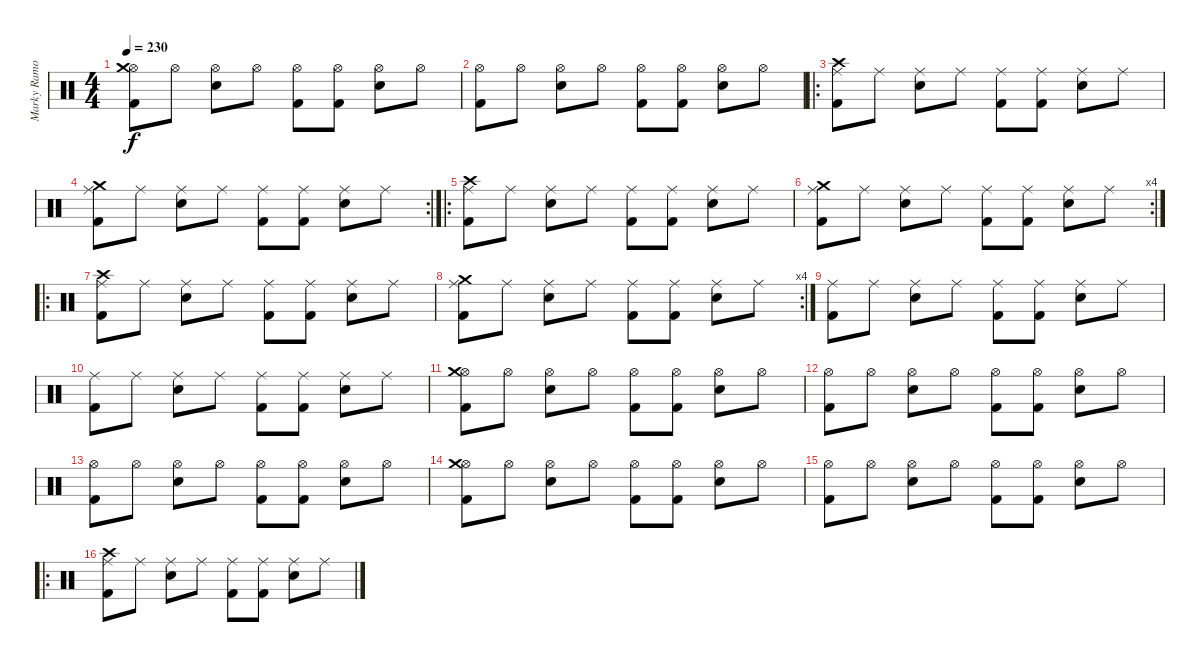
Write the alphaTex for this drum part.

\track ("Marky Ramone" "Marky Ramo") {instrument percussion}
\staff {score}
\articulation defaults
\ts (4 4)
\tempo 230
\clef neutral
\ks c
("Hi-Hat (open)" "Kick (hit) 2" "Crash medium (hit)").8{dy f} "Hi-Hat (open)".8 ("Hi-Hat (open)" "Electric Snare (hit)").8 "Hi-Hat (open)".8 ("Hi-Hat (open)" "Kick (hit) 2").8 ("Hi-Hat (open)" "Kick (hit) 2").8 ("Hi-Hat (open)" "Electric Snare (hit)").8 "Hi-Hat (open)".8 |
("Hi-Hat (open)" "Kick (hit) 2").8 "Hi-Hat (open)".8 ("Hi-Hat (open)" "Electric Snare (hit)").8 "Hi-Hat (open)".8 ("Hi-Hat (open)" "Kick (hit) 2").8 ("Hi-Hat (open)" "Kick (hit) 2").8 ("Hi-Hat (open)" "Electric Snare (hit)").8 "Hi-Hat (open)".8 |
\ro
("Ride (middle)" "Kick (hit) 2" "Crash high (hit)").8 "Ride (middle)".8 ("Ride (middle)" "Electric Snare (hit)").8 "Ride (middle)".8 ("Ride (middle)" "Kick (hit) 2").8 ("Ride (middle)" "Kick (hit) 2").8 ("Ride (middle)" "Electric Snare (hit)").8 "Ride (middle)".8 |
\rc 2
("Ride (middle)" "Kick (hit) 2" "Crash medium (hit)").8 "Ride (middle)".8 ("Ride (middle)" "Electric Snare (hit)").8 "Ride (middle)".8 ("Ride (middle)" "Kick (hit) 2").8 ("Ride (middle)" "Kick (hit) 2").8 ("Ride (middle)" "Electric Snare (hit)").8 "Ride (middle)".8 |
\ro
("Ride (middle)" "Kick (hit) 2" "Crash high (hit)").8 "Ride (middle)".8 ("Ride (middle)" "Electric Snare (hit)").8 "Ride (middle)".8 ("Ride (middle)" "Kick (hit) 2").8 ("Ride (middle)" "Kick (hit) 2").8 ("Ride (middle)" "Electric Snare (hit)").8 "Ride (middle)".8 |
\rc 4
("Ride (middle)" "Kick (hit) 2" "Crash medium (hit)").8 "Ride (middle)".8 ("Ride (middle)" "Electric Snare (hit)").8 "Ride (middle)".8 ("Ride (middle)" "Kick (hit) 2").8 ("Ride (middle)" "Kick (hit) 2").8 ("Ride (middle)" "Electric Snare (hit)").8 "Ride (middle)".8 |
\ro
("Ride (middle)" "Kick (hit) 2" "Crash high (hit)").8 "Ride (middle)".8 ("Ride (middle)" "Electric Snare (hit)").8 "Ride (middle)".8 ("Ride (middle)" "Kick (hit) 2").8 ("Ride (middle)" "Kick (hit) 2").8 ("Ride (middle)" "Electric Snare (hit)").8 "Ride (middle)".8 |
\rc 4
("Ride (middle)" "Kick (hit) 2" "Crash medium (hit)").8 "Ride (middle)".8 ("Ride (middle)" "Electric Snare (hit)").8 "Ride (middle)".8 ("Ride (middle)" "Kick (hit) 2").8 ("Ride (middle)" "Kick (hit) 2").8 ("Ride (middle)" "Electric Snare (hit)").8 "Ride (middle)".8 |
("Ride (middle)" "Kick (hit) 2").8 "Ride (middle)".8 ("Ride (middle)" "Electric Snare (hit)").8 "Ride (middle)".8 ("Ride (middle)" "Kick (hit) 2").8 ("Ride (middle)" "Kick (hit) 2").8 ("Ride (middle)" "Electric Snare (hit)").8 "Ride (middle)".8 |
("Ride (middle)" "Kick (hit) 2").8 "Ride (middle)".8 ("Ride (middle)" "Electric Snare (hit)").8 "Ride (middle)".8 ("Ride (middle)" "Kick (hit) 2").8 ("Ride (middle)" "Kick (hit) 2").8 ("Ride (middle)" "Electric Snare (hit)").8 "Ride (middle)".8 |
("Hi-Hat (open)" "Kick (hit) 2" "Crash medium (hit)").8 "Hi-Hat (open)".8 ("Hi-Hat (open)" "Electric Snare (hit)").8 "Hi-Hat (open)".8 ("Hi-Hat (open)" "Kick (hit) 2").8 ("Hi-Hat (open)" "Kick (hit) 2").8 ("Hi-Hat (open)" "Electric Snare (hit)").8 "Hi-Hat (open)".8 |
("Hi-Hat (open)" "Kick (hit) 2").8 "Hi-Hat (open)".8 ("Hi-Hat (open)" "Electric Snare (hit)").8 "Hi-Hat (open)".8 ("Hi-Hat (open)" "Kick (hit) 2").8 ("Hi-Hat (open)" "Kick (hit) 2").8 ("Hi-Hat (open)" "Electric Snare (hit)").8 "Hi-Hat (open)".8 |
("Hi-Hat (open)" "Kick (hit) 2").8 "Hi-Hat (open)".8 ("Hi-Hat (open)" "Electric Snare (hit)").8 "Hi-Hat (open)".8 ("Hi-Hat (open)" "Kick (hit) 2").8 ("Hi-Hat (open)" "Kick (hit) 2").8 ("Hi-Hat (open)" "Electric Snare (hit)").8 "Hi-Hat (open)".8 |
("Hi-Hat (open)" "Kick (hit) 2" "Crash medium (hit)").8 "Hi-Hat (open)".8 ("Hi-Hat (open)" "Electric Snare (hit)").8 "Hi-Hat (open)".8 ("Hi-Hat (open)" "Kick (hit) 2").8 ("Hi-Hat (open)" "Kick (hit) 2").8 ("Hi-Hat (open)" "Electric Snare (hit)").8 "Hi-Hat (open)".8 |
("Hi-Hat (open)" "Kick (hit) 2").8 "Hi-Hat (open)".8 ("Hi-Hat (open)" "Electric Snare (hit)").8 "Hi-Hat (open)".8 ("Hi-Hat (open)" "Kick (hit) 2").8 ("Hi-Hat (open)" "Kick (hit) 2").8 ("Hi-Hat (open)" "Electric Snare (hit)").8 "Hi-Hat (open)".8 |
\ro
("Ride (middle)" "Kick (hit) 2" "Crash high (hit)").8 "Ride (middle)".8 ("Ride (middle)" "Electric Snare (hit)").8 "Ride (middle)".8 ("Ride (middle)" "Kick (hit) 2").8 ("Ride (middle)" "Kick (hit) 2").8 ("Ride (middle)" "Electric Snare (hit)").8 "Ride (middle)".8
